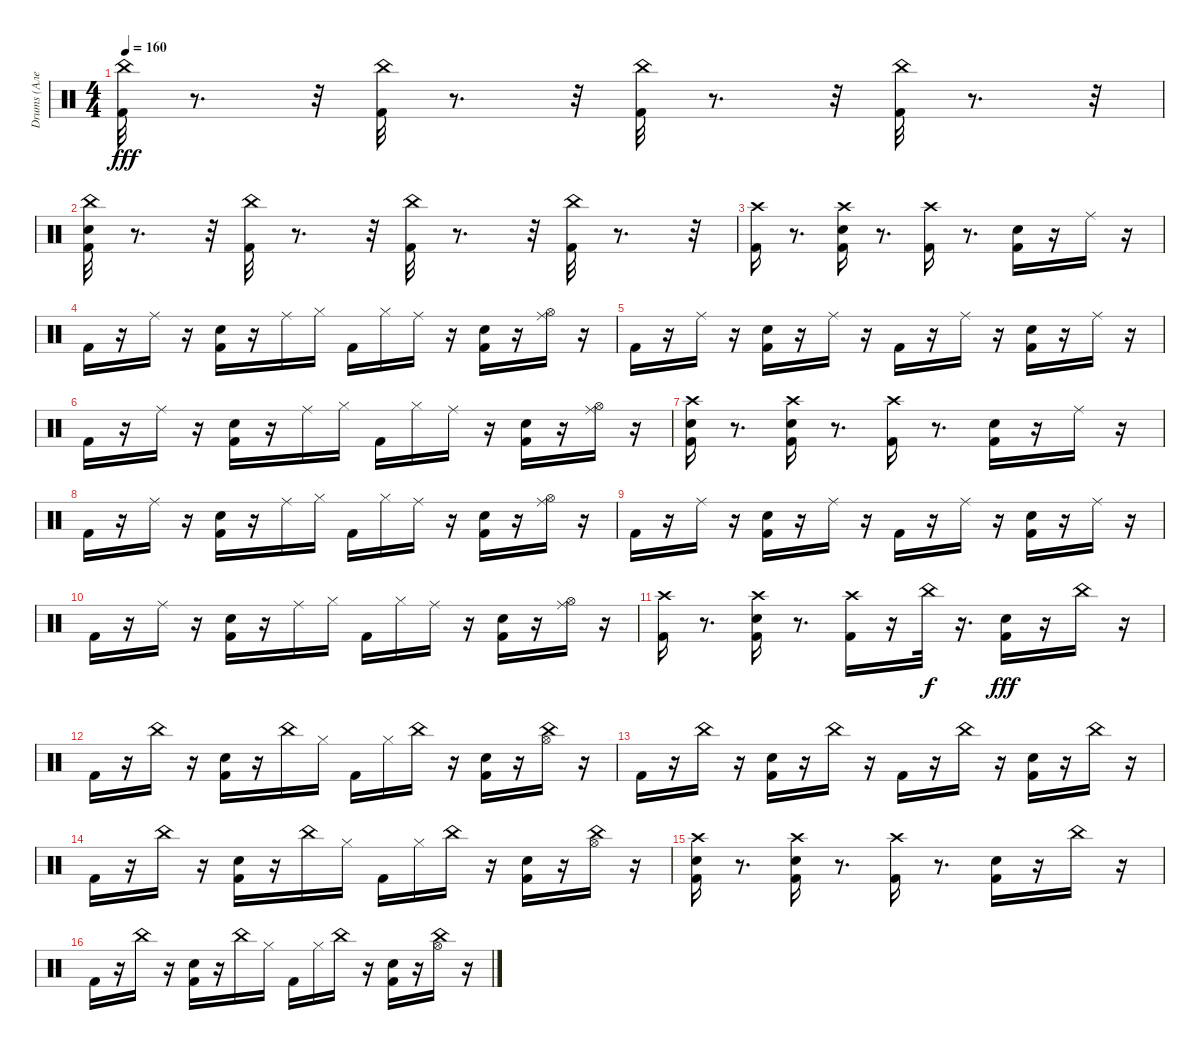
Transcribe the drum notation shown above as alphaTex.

\track ("Drums (Алексей Барзилович)" "Drums (Але") {instrument percussion}
\staff {score}
\articulation defaults
\ts (4 4)
\tempo 160
\clef neutral
\ks c
("China (hit)" "Kick (hit) 2").32{dy fff} r.8{d} r.32 ("China (hit)" "Kick (hit) 2").32 r.8{d} r.32 ("China (hit)" "Kick (hit) 2").32 r.8{d} r.32 ("China (hit)" "Kick (hit) 2").32 r.8{d} r.32 |
("China (hit)" "Electric Snare (hit)" "Kick (hit) 2").32 r.8{d} r.32 ("China (hit)" "Kick (hit) 2").32 r.8{d} r.32 ("China (hit)" "Kick (hit) 2").32 r.8{d} r.32 ("China (hit)" "Kick (hit) 2").32 r.8{d} r.32 |
("Crash high (hit)" "Kick (hit) 2").16 r.8{d} ("Crash high (hit)" "Electric Snare (hit)" "Kick (hit) 2").16 r.8{d} ("Crash high (hit)" "Kick (hit) 2").16 r.8{d} ("Electric Snare (hit)" "Kick (hit) 2").16 r.16 "Ride (middle)".16 r.16 |
"Kick (hit) 2".16 r.16 "Ride (middle)".16 r.16 ("Electric Snare (hit)" "Kick (hit) 2").16 r.16 "Ride (middle)".16 "Hi-Hat (closed)".16 "Kick (hit) 2".16 "Hi-Hat (closed)".16 "Ride (middle)".16 r.16 ("Electric Snare (hit)" "Kick (hit) 2").16 r.16 ("Ride (middle)" "Hi-Hat (open)").16 r.16 |
"Kick (hit) 2".16 r.16 "Ride (middle)".16 r.16 ("Electric Snare (hit)" "Kick (hit) 2").16 r.16 "Ride (middle)".16 r.16 "Kick (hit) 2".16 r.16 "Ride (middle)".16 r.16 ("Electric Snare (hit)" "Kick (hit) 2").16 r.16 "Ride (middle)".16 r.16 |
"Kick (hit) 2".16 r.16 "Ride (middle)".16 r.16 ("Electric Snare (hit)" "Kick (hit) 2").16 r.16 "Ride (middle)".16 "Hi-Hat (closed)".16 "Kick (hit) 2".16 "Hi-Hat (closed)".16 "Ride (middle)".16 r.16 ("Electric Snare (hit)" "Kick (hit) 2").16 r.16 ("Hi-Hat (open)" "Ride (middle)").16 r.16 |
("Electric Snare (hit)" "Kick (hit) 2" "Crash high (hit)").16 r.8{d} ("Crash high (hit)" "Electric Snare (hit)" "Kick (hit) 2").16 r.8{d} ("Crash high (hit)" "Kick (hit) 2").16 r.8{d} ("Kick (hit) 2" "Electric Snare (hit)").16 r.16 "Ride (middle)".16 r.16 |
"Kick (hit) 2".16 r.16 "Ride (middle)".16 r.16 ("Electric Snare (hit)" "Kick (hit) 2").16 r.16 "Ride (middle)".16 "Hi-Hat (closed)".16 "Kick (hit) 2".16 "Hi-Hat (closed)".16 "Ride (middle)".16 r.16 ("Electric Snare (hit)" "Kick (hit) 2").16 r.16 ("Hi-Hat (open)" "Ride (middle)").16 r.16 |
"Kick (hit) 2".16 r.16 "Ride (middle)".16 r.16 ("Kick (hit) 2" "Electric Snare (hit)").16 r.16 "Ride (middle)".16 r.16 "Kick (hit) 2".16 r.16 "Ride (middle)".16 r.16 ("Electric Snare (hit)" "Kick (hit) 2").16 r.16 "Ride (middle)".16 r.16 |
"Kick (hit) 2".16 r.16 "Ride (middle)".16 r.16 ("Kick (hit) 2" "Electric Snare (hit)").16 r.16 "Ride (middle)".16 "Hi-Hat (closed)".16 "Kick (hit) 2".16 "Hi-Hat (closed)".16 "Ride (middle)".16 r.16 ("Kick (hit) 2" "Electric Snare (hit)").16 r.16 ("Hi-Hat (open)" "Ride (middle)").16 r.16 |
("Crash high (hit)" "Kick (hit) 2").16 r.8{d} ("Crash high (hit)" "Electric Snare (hit)" "Kick (hit) 2").16 r.8{d} ("Crash high (hit)" "Kick (hit) 2").16 r.16 "China (hit)".32{dy f} r.16{d} ("Kick (hit) 2" "Electric Snare (hit)").16{dy fff} r.16 "China (hit)".16 r.16 |
"Kick (hit) 2".16 r.16 "China (hit)".16 r.16 ("Kick (hit) 2" "Electric Snare (hit)").16 r.16 "China (hit)".16 "Hi-Hat (closed)".16 "Kick (hit) 2".16 "Hi-Hat (closed)".16 "China (hit)".16 r.16 ("Electric Snare (hit)" "Kick (hit) 2").16 r.16 ("Hi-Hat (open)" "China (hit)").16 r.16 |
"Kick (hit) 2".16 r.16 "China (hit)".16 r.16 ("Kick (hit) 2" "Electric Snare (hit)").16 r.16 "China (hit)".16 r.16 "Kick (hit) 2".16 r.16 "China (hit)".16 r.16 ("Electric Snare (hit)" "Kick (hit) 2").16 r.16 "China (hit)".16 r.16 |
"Kick (hit) 2".16 r.16 "China (hit)".16 r.16 ("Kick (hit) 2" "Electric Snare (hit)").16 r.16 "China (hit)".16 "Hi-Hat (closed)".16 "Kick (hit) 2".16 "Hi-Hat (closed)".16 "China (hit)".16 r.16 ("Kick (hit) 2" "Electric Snare (hit)").16 r.16 ("Hi-Hat (open)" "China (hit)").16 r.16 |
("Electric Snare (hit)" "Kick (hit) 2" "Crash high (hit)").16 r.8{d} ("Electric Snare (hit)" "Kick (hit) 2" "Crash high (hit)").16 r.8{d} ("Kick (hit) 2" "Crash high (hit)").16 r.8{d} ("Electric Snare (hit)" "Kick (hit) 2").16 r.16 "China (hit)".16 r.16 |
"Kick (hit) 2".16 r.16 "China (hit)".16 r.16 ("Electric Snare (hit)" "Kick (hit) 2").16 r.16 "China (hit)".16 "Hi-Hat (closed)".16 "Kick (hit) 2".16 "Hi-Hat (closed)".16 "China (hit)".16 r.16 ("Kick (hit) 2" "Electric Snare (hit)").16 r.16 ("Hi-Hat (open)" "China (hit)").16 r.16
